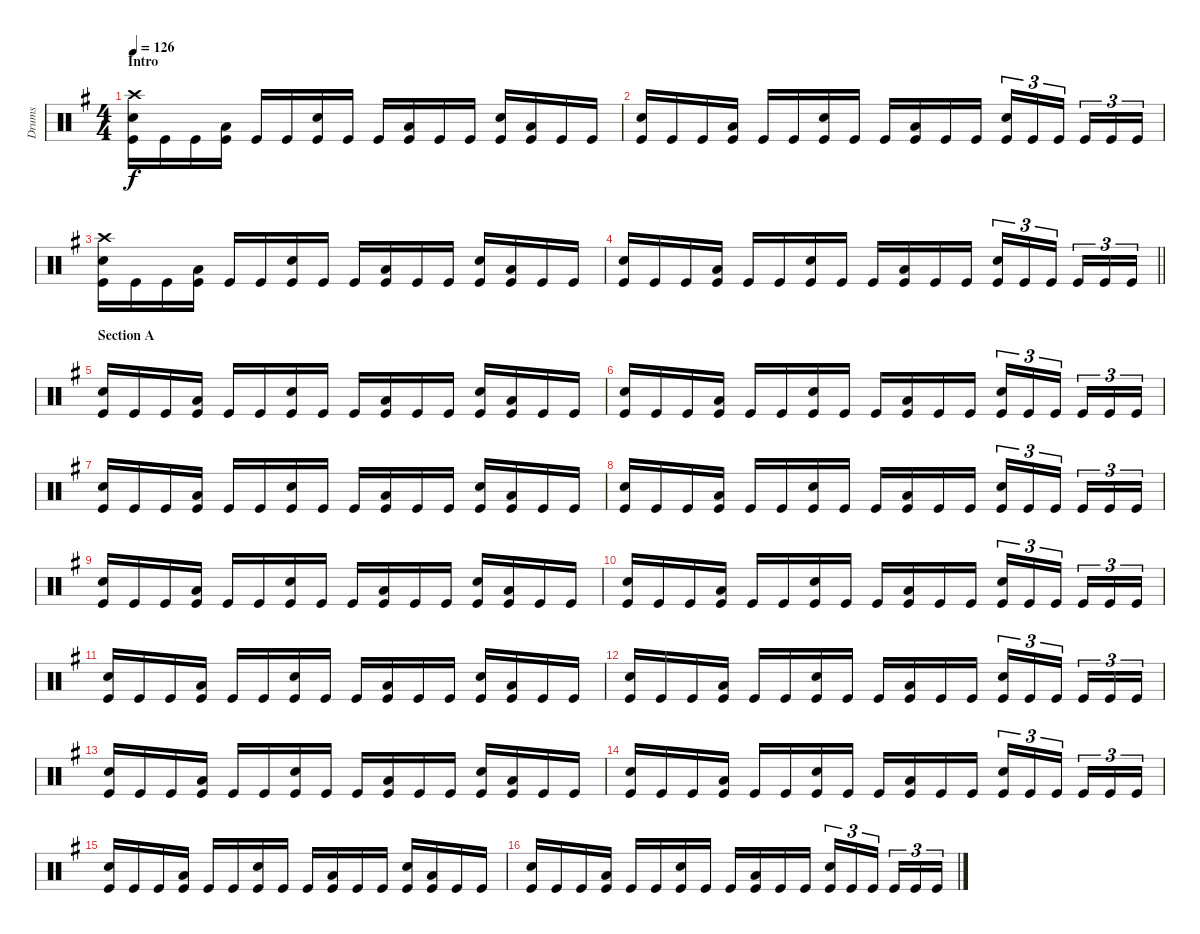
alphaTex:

\track ("Drums" "Drums") {instrument percussion}
\staff {score}
\articulation defaults
\ts (4 4)
\section ("" "Intro")
\tempo 126
\clef neutral
\ks eminor
("Crash high (hit)" "Snare (hit) 2" "Kick (hit)").16{dy f} "Kick (hit)".16 "Kick (hit)".16 ("Low Floor Tom (hit)" "Kick (hit)").16 "Kick (hit)".16 "Kick (hit)".16 ("Snare (hit) 2" "Kick (hit)").16 "Kick (hit)".16 "Kick (hit)".16 ("Low Floor Tom (hit)" "Kick (hit)").16 "Kick (hit)".16 "Kick (hit)".16 ("Snare (hit) 2" "Kick (hit)").16 ("Low Floor Tom (hit)" "Kick (hit)").16 "Kick (hit)".16 "Kick (hit)".16 |
("Snare (hit) 2" "Kick (hit)").16 "Kick (hit)".16 "Kick (hit)".16 ("Low Floor Tom (hit)" "Kick (hit)").16 "Kick (hit)".16 "Kick (hit)".16 ("Snare (hit) 2" "Kick (hit)").16 "Kick (hit)".16 "Kick (hit)".16 ("Low Floor Tom (hit)" "Kick (hit)").16 "Kick (hit)".16 "Kick (hit)".16 ("Snare (hit) 2" "Kick (hit)").16{tu (3 2)} "Kick (hit)".16{tu (3 2)} "Kick (hit)".16{tu (3 2) beam splitsecondary} "Kick (hit)".16{tu (3 2)} "Kick (hit)".16{tu (3 2)} "Kick (hit)".16{tu (3 2)} |
("Crash high (hit)" "Snare (hit) 2" "Kick (hit)").16 "Kick (hit)".16 "Kick (hit)".16 ("Low Floor Tom (hit)" "Kick (hit)").16 "Kick (hit)".16 "Kick (hit)".16 ("Snare (hit) 2" "Kick (hit)").16 "Kick (hit)".16 "Kick (hit)".16 ("Low Floor Tom (hit)" "Kick (hit)").16 "Kick (hit)".16 "Kick (hit)".16 ("Snare (hit) 2" "Kick (hit)").16 ("Low Floor Tom (hit)" "Kick (hit)").16 "Kick (hit)".16 "Kick (hit)".16 |
\barLineRight lightlight
("Snare (hit) 2" "Kick (hit)").16 "Kick (hit)".16 "Kick (hit)".16 ("Low Floor Tom (hit)" "Kick (hit)").16 "Kick (hit)".16 "Kick (hit)".16 ("Snare (hit) 2" "Kick (hit)").16 "Kick (hit)".16 "Kick (hit)".16 ("Low Floor Tom (hit)" "Kick (hit)").16 "Kick (hit)".16 "Kick (hit)".16 ("Snare (hit) 2" "Kick (hit)").16{tu (3 2)} "Kick (hit)".16{tu (3 2)} "Kick (hit)".16{tu (3 2) beam splitsecondary} "Kick (hit)".16{tu (3 2)} "Kick (hit)".16{tu (3 2)} "Kick (hit)".16{tu (3 2)} |
\section ("" "Section A")
("Snare (hit) 2" "Kick (hit)").16 "Kick (hit)".16 "Kick (hit)".16 ("Low Floor Tom (hit)" "Kick (hit)").16 "Kick (hit)".16 "Kick (hit)".16 ("Snare (hit) 2" "Kick (hit)").16 "Kick (hit)".16 "Kick (hit)".16 ("Low Floor Tom (hit)" "Kick (hit)").16 "Kick (hit)".16 "Kick (hit)".16 ("Snare (hit) 2" "Kick (hit)").16 ("Low Floor Tom (hit)" "Kick (hit)").16 "Kick (hit)".16 "Kick (hit)".16 |
("Snare (hit) 2" "Kick (hit)").16 "Kick (hit)".16 "Kick (hit)".16 ("Low Floor Tom (hit)" "Kick (hit)").16 "Kick (hit)".16 "Kick (hit)".16 ("Snare (hit) 2" "Kick (hit)").16 "Kick (hit)".16 "Kick (hit)".16 ("Low Floor Tom (hit)" "Kick (hit)").16 "Kick (hit)".16 "Kick (hit)".16 ("Snare (hit) 2" "Kick (hit)").16{tu (3 2)} "Kick (hit)".16{tu (3 2)} "Kick (hit)".16{tu (3 2) beam splitsecondary} "Kick (hit)".16{tu (3 2)} "Kick (hit)".16{tu (3 2)} "Kick (hit)".16{tu (3 2)} |
("Snare (hit) 2" "Kick (hit)").16 "Kick (hit)".16 "Kick (hit)".16 ("Low Floor Tom (hit)" "Kick (hit)").16 "Kick (hit)".16 "Kick (hit)".16 ("Snare (hit) 2" "Kick (hit)").16 "Kick (hit)".16 "Kick (hit)".16 ("Low Floor Tom (hit)" "Kick (hit)").16 "Kick (hit)".16 "Kick (hit)".16 ("Snare (hit) 2" "Kick (hit)").16 ("Low Floor Tom (hit)" "Kick (hit)").16 "Kick (hit)".16 "Kick (hit)".16 |
("Snare (hit) 2" "Kick (hit)").16 "Kick (hit)".16 "Kick (hit)".16 ("Low Floor Tom (hit)" "Kick (hit)").16 "Kick (hit)".16 "Kick (hit)".16 ("Snare (hit) 2" "Kick (hit)").16 "Kick (hit)".16 "Kick (hit)".16 ("Low Floor Tom (hit)" "Kick (hit)").16 "Kick (hit)".16 "Kick (hit)".16 ("Snare (hit) 2" "Kick (hit)").16{tu (3 2)} "Kick (hit)".16{tu (3 2)} "Kick (hit)".16{tu (3 2) beam splitsecondary} "Kick (hit)".16{tu (3 2)} "Kick (hit)".16{tu (3 2)} "Kick (hit)".16{tu (3 2)} |
("Snare (hit) 2" "Kick (hit)").16 "Kick (hit)".16 "Kick (hit)".16 ("Low Floor Tom (hit)" "Kick (hit)").16 "Kick (hit)".16 "Kick (hit)".16 ("Snare (hit) 2" "Kick (hit)").16 "Kick (hit)".16 "Kick (hit)".16 ("Low Floor Tom (hit)" "Kick (hit)").16 "Kick (hit)".16 "Kick (hit)".16 ("Snare (hit) 2" "Kick (hit)").16 ("Low Floor Tom (hit)" "Kick (hit)").16 "Kick (hit)".16 "Kick (hit)".16 |
("Snare (hit) 2" "Kick (hit)").16 "Kick (hit)".16 "Kick (hit)".16 ("Low Floor Tom (hit)" "Kick (hit)").16 "Kick (hit)".16 "Kick (hit)".16 ("Snare (hit) 2" "Kick (hit)").16 "Kick (hit)".16 "Kick (hit)".16 ("Low Floor Tom (hit)" "Kick (hit)").16 "Kick (hit)".16 "Kick (hit)".16 ("Snare (hit) 2" "Kick (hit)").16{tu (3 2)} "Kick (hit)".16{tu (3 2)} "Kick (hit)".16{tu (3 2) beam splitsecondary} "Kick (hit)".16{tu (3 2)} "Kick (hit)".16{tu (3 2)} "Kick (hit)".16{tu (3 2)} |
("Snare (hit) 2" "Kick (hit)").16 "Kick (hit)".16 "Kick (hit)".16 ("Low Floor Tom (hit)" "Kick (hit)").16 "Kick (hit)".16 "Kick (hit)".16 ("Snare (hit) 2" "Kick (hit)").16 "Kick (hit)".16 "Kick (hit)".16 ("Low Floor Tom (hit)" "Kick (hit)").16 "Kick (hit)".16 "Kick (hit)".16 ("Snare (hit) 2" "Kick (hit)").16 ("Low Floor Tom (hit)" "Kick (hit)").16 "Kick (hit)".16 "Kick (hit)".16 |
("Snare (hit) 2" "Kick (hit)").16 "Kick (hit)".16 "Kick (hit)".16 ("Low Floor Tom (hit)" "Kick (hit)").16 "Kick (hit)".16 "Kick (hit)".16 ("Snare (hit) 2" "Kick (hit)").16 "Kick (hit)".16 "Kick (hit)".16 ("Low Floor Tom (hit)" "Kick (hit)").16 "Kick (hit)".16 "Kick (hit)".16 ("Snare (hit) 2" "Kick (hit)").16{tu (3 2)} "Kick (hit)".16{tu (3 2)} "Kick (hit)".16{tu (3 2) beam splitsecondary} "Kick (hit)".16{tu (3 2)} "Kick (hit)".16{tu (3 2)} "Kick (hit)".16{tu (3 2)} |
("Snare (hit) 2" "Kick (hit)").16 "Kick (hit)".16 "Kick (hit)".16 ("Low Floor Tom (hit)" "Kick (hit)").16 "Kick (hit)".16 "Kick (hit)".16 ("Snare (hit) 2" "Kick (hit)").16 "Kick (hit)".16 "Kick (hit)".16 ("Low Floor Tom (hit)" "Kick (hit)").16 "Kick (hit)".16 "Kick (hit)".16 ("Snare (hit) 2" "Kick (hit)").16 ("Low Floor Tom (hit)" "Kick (hit)").16 "Kick (hit)".16 "Kick (hit)".16 |
("Snare (hit) 2" "Kick (hit)").16 "Kick (hit)".16 "Kick (hit)".16 ("Low Floor Tom (hit)" "Kick (hit)").16 "Kick (hit)".16 "Kick (hit)".16 ("Snare (hit) 2" "Kick (hit)").16 "Kick (hit)".16 "Kick (hit)".16 ("Low Floor Tom (hit)" "Kick (hit)").16 "Kick (hit)".16 "Kick (hit)".16 ("Snare (hit) 2" "Kick (hit)").16{tu (3 2)} "Kick (hit)".16{tu (3 2)} "Kick (hit)".16{tu (3 2) beam splitsecondary} "Kick (hit)".16{tu (3 2)} "Kick (hit)".16{tu (3 2)} "Kick (hit)".16{tu (3 2)} |
("Snare (hit) 2" "Kick (hit)").16 "Kick (hit)".16 "Kick (hit)".16 ("Low Floor Tom (hit)" "Kick (hit)").16 "Kick (hit)".16 "Kick (hit)".16 ("Snare (hit) 2" "Kick (hit)").16 "Kick (hit)".16 "Kick (hit)".16 ("Low Floor Tom (hit)" "Kick (hit)").16 "Kick (hit)".16 "Kick (hit)".16 ("Snare (hit) 2" "Kick (hit)").16 ("Low Floor Tom (hit)" "Kick (hit)").16 "Kick (hit)".16 "Kick (hit)".16 |
("Snare (hit) 2" "Kick (hit)").16 "Kick (hit)".16 "Kick (hit)".16 ("Low Floor Tom (hit)" "Kick (hit)").16 "Kick (hit)".16 "Kick (hit)".16 ("Snare (hit) 2" "Kick (hit)").16 "Kick (hit)".16 "Kick (hit)".16 ("Low Floor Tom (hit)" "Kick (hit)").16 "Kick (hit)".16 "Kick (hit)".16 ("Snare (hit) 2" "Kick (hit)").16{tu (3 2)} "Kick (hit)".16{tu (3 2)} "Kick (hit)".16{tu (3 2) beam splitsecondary} "Kick (hit)".16{tu (3 2)} "Kick (hit)".16{tu (3 2)} "Kick (hit)".16{tu (3 2)}
